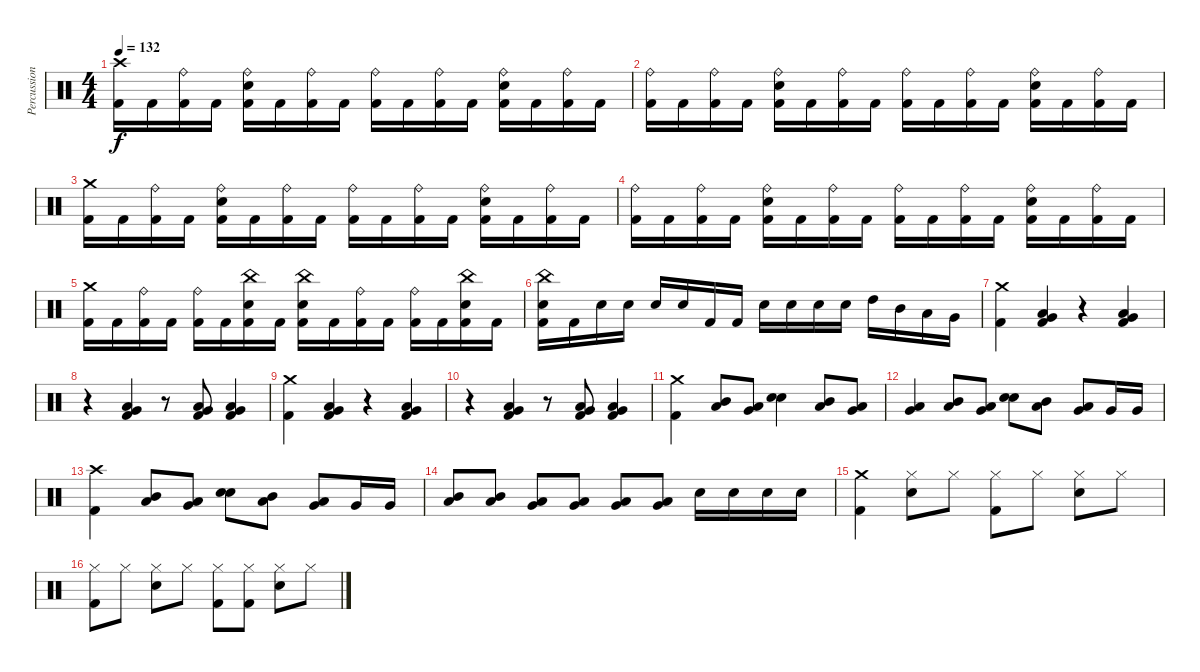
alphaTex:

\track ("Percussion" "Percussion") {instrument percussion}
\staff {score}
\articulation defaults
\ts (4 4)
\tempo 132
\clef neutral
\ks c
("Crash high (hit)" "Kick (hit) 2").16{dy f} "Kick (hit) 2".16 ("Ride (bell)" "Kick (hit) 2").16 "Kick (hit) 2".16 ("Snare (hit) 2" "Ride (bell)" "Kick (hit) 2").16 "Kick (hit) 2".16 ("Ride (bell)" "Kick (hit) 2").16 "Kick (hit) 2".16 ("Ride (bell)" "Kick (hit) 2").16 "Kick (hit) 2".16 ("Ride (bell)" "Kick (hit) 2").16 "Kick (hit) 2".16 ("Snare (hit) 2" "Ride (bell)" "Kick (hit) 2").16 "Kick (hit) 2".16 ("Ride (bell)" "Kick (hit) 2").16 "Kick (hit) 2".16 |
("Ride (bell)" "Kick (hit) 2").16 "Kick (hit) 2".16 ("Ride (bell)" "Kick (hit) 2").16 "Kick (hit) 2".16 ("Snare (hit) 2" "Ride (bell)" "Kick (hit) 2").16 "Kick (hit) 2".16 ("Ride (bell)" "Kick (hit) 2").16 "Kick (hit) 2".16 ("Ride (bell)" "Kick (hit) 2").16 "Kick (hit) 2".16 ("Ride (bell)" "Kick (hit) 2").16 "Kick (hit) 2".16 ("Snare (hit) 2" "Ride (bell)" "Kick (hit) 2").16 "Kick (hit) 2".16 ("Ride (bell)" "Kick (hit) 2").16 "Kick (hit) 2".16 |
("Crash medium (hit)" "Kick (hit) 2").16 "Kick (hit) 2".16 ("Ride (bell)" "Kick (hit) 2").16 "Kick (hit) 2".16 ("Snare (hit) 2" "Ride (bell)" "Kick (hit) 2").16 "Kick (hit) 2".16 ("Ride (bell)" "Kick (hit) 2").16 "Kick (hit) 2".16 ("Ride (bell)" "Kick (hit) 2").16 "Kick (hit) 2".16 ("Ride (bell)" "Kick (hit) 2").16 "Kick (hit) 2".16 ("Snare (hit) 2" "Ride (bell)" "Kick (hit) 2").16 "Kick (hit) 2".16 ("Ride (bell)" "Kick (hit) 2").16 "Kick (hit) 2".16 |
("Ride (bell)" "Kick (hit) 2").16 "Kick (hit) 2".16 ("Ride (bell)" "Kick (hit) 2").16 "Kick (hit) 2".16 ("Snare (hit) 2" "Ride (bell)" "Kick (hit) 2").16 "Kick (hit) 2".16 ("Ride (bell)" "Kick (hit) 2").16 "Kick (hit) 2".16 ("Ride (bell)" "Kick (hit) 2").16 "Kick (hit) 2".16 ("Ride (bell)" "Kick (hit) 2").16 "Kick (hit) 2".16 ("Snare (hit) 2" "Ride (bell)" "Kick (hit) 2").16 "Kick (hit) 2".16 ("Ride (bell)" "Kick (hit) 2").16 "Kick (hit) 2".16 |
("Crash medium (hit)" "Kick (hit) 2").16 "Kick (hit) 2".16 ("Ride (bell)" "Kick (hit) 2").16 "Kick (hit) 2".16 ("Ride (bell)" "Kick (hit) 2").16 "Kick (hit) 2".16 ("Snare (hit) 2" "China (hit)" "Kick (hit) 2").16 "Kick (hit) 2".16 ("Snare (hit) 2" "China (hit)" "Kick (hit) 2").16 "Kick (hit) 2".16 ("Ride (bell)" "Kick (hit) 2").16 "Kick (hit) 2".16 ("Ride (bell)" "Kick (hit) 2").16 "Kick (hit) 2".16 ("Snare (hit) 2" "China (hit)" "Kick (hit) 2").16 "Kick (hit) 2".16 |
("Snare (hit) 2" "China (hit)" "Kick (hit) 2").16 "Kick (hit) 2".16 "Snare (hit) 2".16 "Snare (hit) 2".16 "Snare (hit) 2".16 "Snare (hit) 2".16 "Kick (hit) 2".16 "Kick (hit) 2".16 "Snare (hit) 2".16 "Snare (hit) 2".16 "Snare (hit) 2".16 "Snare (hit) 2".16 "High Tom (hit)".16 "Mid Tom (hit)".16 "Low Tom (hit)".16 "Very Low Tom (hit)".16 |
("Kick (hit) 2" "Crash medium (hit)").4 ("Kick (hit) 2" "Low Tom (hit)" "Very Low Tom (hit)").4 r.4 ("Kick (hit) 2" "Low Tom (hit)" "Very Low Tom (hit)").4 |
r.4 ("Kick (hit) 2" "Low Tom (hit)" "Very Low Tom (hit)").4 r.8 ("Kick (hit) 2" "Low Tom (hit)" "Very Low Tom (hit)").8 ("Kick (hit) 2" "Low Tom (hit)" "Very Low Tom (hit)").4 |
("Kick (hit) 2" "Crash medium (hit)").4 ("Kick (hit) 2" "Low Tom (hit)" "Very Low Tom (hit)").4 r.4 ("Kick (hit) 2" "Low Tom (hit)" "Very Low Tom (hit)").4 |
r.4 ("Kick (hit) 2" "Low Tom (hit)" "Very Low Tom (hit)").4 r.8 ("Kick (hit) 2" "Low Tom (hit)" "Very Low Tom (hit)").8 ("Kick (hit) 2" "Low Tom (hit)" "Very Low Tom (hit)").4 |
("Kick (hit) 2" "Crash medium (hit)").4 ("Mid Tom (hit)" "Low Tom (hit)").8 ("Very Low Tom (hit)" "Low Tom (hit)").8 ("Snare (hit) 2" "Snare (hit) 2").4 ("Mid Tom (hit)" "Low Tom (hit)").8 ("Very Low Tom (hit)" "Low Tom (hit)").8 |
("Low Floor Tom (hit)" "Very Low Tom (hit)").4 ("Mid Tom (hit)" "Low Tom (hit)").8 ("Very Low Tom (hit)" "Low Tom (hit)").8 ("Snare (hit) 2" "Snare (hit) 2").8 ("Low Tom (hit)" "Mid Tom (hit)").8 ("Very Low Tom (hit)" "Low Tom (hit)").8 "Very Low Tom (hit)".16 "Very Low Tom (hit)".16 |
("Kick (hit) 2" "Crash high (hit)").4 ("Mid Tom (hit)" "Low Tom (hit)").8 ("Very Low Tom (hit)" "Low Tom (hit)").8 ("Snare (hit) 2" "Snare (hit) 2").8 ("Low Tom (hit)" "Mid Tom (hit)").8 ("Very Low Tom (hit)" "Low Tom (hit)").8 "Very Low Tom (hit)".16 "Very Low Tom (hit)".16 |
("Mid Tom (hit)" "Low Tom (hit)").8 ("Mid Tom (hit)" "Low Tom (hit)").8 ("Very Low Tom (hit)" "Low Tom (hit)").8 ("Very Low Tom (hit)" "Low Tom (hit)").8 ("Very Low Tom (hit)" "Low Floor Tom (hit)").8 ("Very Low Tom (hit)" "Low Floor Tom (hit)").8 "Snare (hit) 2".16 "Snare (hit) 2".16 "Snare (hit) 2".16 "Snare (hit) 2".16 |
("Kick (hit) 2" "Crash medium (hit)").4 ("Snare (hit) 2" "Hi-Hat (closed)").8 "Hi-Hat (closed)".8 ("Kick (hit) 2" "Hi-Hat (closed)").8 "Hi-Hat (closed)".8 ("Snare (hit) 2" "Hi-Hat (closed)").8 "Hi-Hat (closed)".8 |
("Kick (hit) 2" "Hi-Hat (closed)").8 "Hi-Hat (closed)".8 ("Snare (hit) 2" "Hi-Hat (closed)").8 "Hi-Hat (closed)".8 ("Kick (hit) 2" "Hi-Hat (closed)").8 ("Kick (hit) 2" "Hi-Hat (closed)").8 ("Snare (hit) 2" "Hi-Hat (closed)").8 "Hi-Hat (closed)".8
